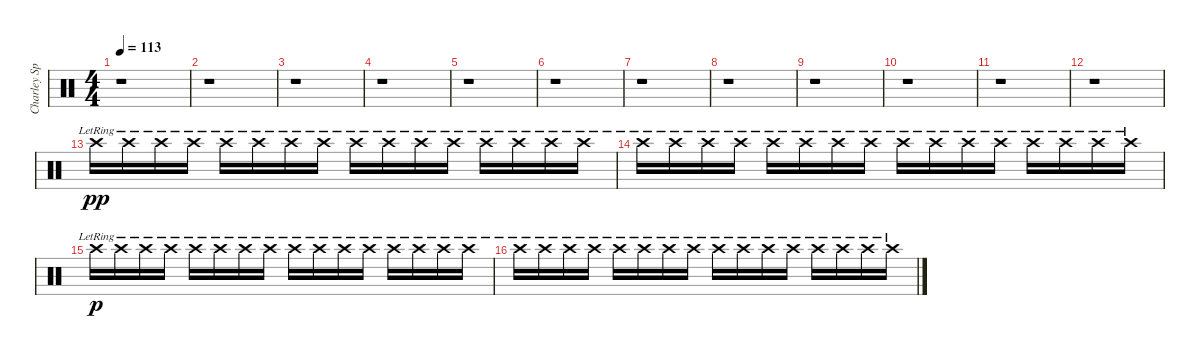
\track ("Charley Spec." "Charley Sp") {instrument percussion}
\staff {score}
\articulation defaults
\ts (4 4)
\tempo 113
\clef neutral
\ks c
r.1{dy pp} |
r.1 |
r.1 |
r.1 |
r.1 |
r.1 |
r.1 |
r.1 |
r.1 |
r.1 |
r.1 |
r.1 |
"Crash high (hit)"{lr}.16 "Crash high (hit)"{lr}.16 "Crash high (hit)"{lr}.16 "Crash high (hit)"{lr}.16 "Crash high (hit)"{lr}.16 "Crash high (hit)"{lr}.16 "Crash high (hit)"{lr}.16 "Crash high (hit)"{lr}.16 "Crash high (hit)"{lr}.16 "Crash high (hit)"{lr}.16 "Crash high (hit)"{lr}.16 "Crash high (hit)"{lr}.16 "Crash high (hit)"{lr}.16 "Crash high (hit)"{lr}.16 "Crash high (hit)"{lr}.16 "Crash high (hit)"{lr}.16 |
"Crash high (hit)"{lr}.16 "Crash high (hit)"{lr}.16 "Crash high (hit)"{lr}.16 "Crash high (hit)"{lr}.16 "Crash high (hit)"{lr}.16 "Crash high (hit)"{lr}.16 "Crash high (hit)"{lr}.16 "Crash high (hit)"{lr}.16 "Crash high (hit)"{lr}.16 "Crash high (hit)"{lr}.16 "Crash high (hit)"{lr}.16 "Crash high (hit)"{lr}.16 "Crash high (hit)"{lr}.16 "Crash high (hit)"{lr}.16 "Crash high (hit)"{lr}.16 "Crash high (hit)"{lr}.16 |
"Crash high (hit)"{lr}.16{dy p} "Crash high (hit)"{lr}.16 "Crash high (hit)"{lr}.16 "Crash high (hit)"{lr}.16 "Crash high (hit)"{lr}.16 "Crash high (hit)"{lr}.16 "Crash high (hit)"{lr}.16 "Crash high (hit)"{lr}.16 "Crash high (hit)"{lr}.16 "Crash high (hit)"{lr}.16 "Crash high (hit)"{lr}.16 "Crash high (hit)"{lr}.16 "Crash high (hit)"{lr}.16 "Crash high (hit)"{lr}.16 "Crash high (hit)"{lr}.16 "Crash high (hit)"{lr}.16 |
"Crash high (hit)"{lr}.16 "Crash high (hit)"{lr}.16 "Crash high (hit)"{lr}.16 "Crash high (hit)"{lr}.16 "Crash high (hit)"{lr}.16 "Crash high (hit)"{lr}.16 "Crash high (hit)"{lr}.16 "Crash high (hit)"{lr}.16 "Crash high (hit)"{lr}.16 "Crash high (hit)"{lr}.16 "Crash high (hit)"{lr}.16 "Crash high (hit)"{lr}.16 "Crash high (hit)"{lr}.16 "Crash high (hit)"{lr}.16 "Crash high (hit)"{lr}.16 "Crash high (hit)"{lr}.16
